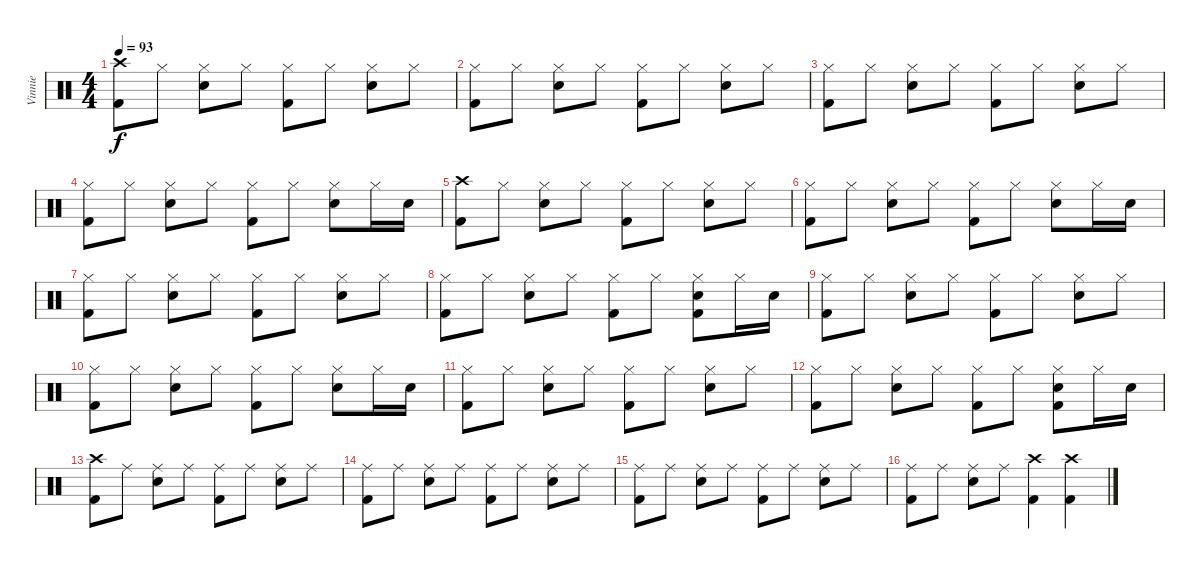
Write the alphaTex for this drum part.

\track ("Vinnie" "Vinnie") {instrument percussion}
\staff {score}
\articulation defaults
\ts (4 4)
\tempo 93
\clef neutral
\ks c
("Crash high (hit)" "Kick (hit) 2").8{dy f} "Hi-Hat (closed)".8 ("Hi-Hat (closed)" "Electric Snare (hit)").8 "Hi-Hat (closed)".8 ("Hi-Hat (closed)" "Kick (hit) 2").8 "Hi-Hat (closed)".8 ("Hi-Hat (closed)" "Electric Snare (hit)").8 "Hi-Hat (closed)".8 |
("Hi-Hat (closed)" "Kick (hit) 2").8 "Hi-Hat (closed)".8 ("Hi-Hat (closed)" "Electric Snare (hit)").8 "Hi-Hat (closed)".8 ("Hi-Hat (closed)" "Kick (hit) 2").8 "Hi-Hat (closed)".8 ("Hi-Hat (closed)" "Electric Snare (hit)").8 "Hi-Hat (closed)".8 |
("Hi-Hat (closed)" "Kick (hit) 2").8 "Hi-Hat (closed)".8 ("Hi-Hat (closed)" "Electric Snare (hit)").8 "Hi-Hat (closed)".8 ("Hi-Hat (closed)" "Kick (hit) 2").8 "Hi-Hat (closed)".8 ("Hi-Hat (closed)" "Electric Snare (hit)").8 "Hi-Hat (closed)".8 |
("Hi-Hat (closed)" "Kick (hit) 2").8 "Hi-Hat (closed)".8 ("Hi-Hat (closed)" "Electric Snare (hit)").8 "Hi-Hat (closed)".8 ("Hi-Hat (closed)" "Kick (hit) 2").8 "Hi-Hat (closed)".8 ("Hi-Hat (closed)" "Electric Snare (hit)").8 "Hi-Hat (closed)".16 "Electric Snare (hit)".16 |
("Crash high (hit)" "Kick (hit) 2").8 "Hi-Hat (closed)".8 ("Hi-Hat (closed)" "Electric Snare (hit)").8 "Hi-Hat (closed)".8 ("Hi-Hat (closed)" "Kick (hit) 2").8 "Hi-Hat (closed)".8 ("Hi-Hat (closed)" "Electric Snare (hit)").8 "Hi-Hat (closed)".8 |
("Hi-Hat (closed)" "Kick (hit) 2").8 "Hi-Hat (closed)".8 ("Hi-Hat (closed)" "Electric Snare (hit)").8 "Hi-Hat (closed)".8 ("Hi-Hat (closed)" "Kick (hit) 2").8 "Hi-Hat (closed)".8 ("Hi-Hat (closed)" "Electric Snare (hit)").8 "Hi-Hat (closed)".16 "Electric Snare (hit)".16 |
("Hi-Hat (closed)" "Kick (hit) 2").8 "Hi-Hat (closed)".8 ("Hi-Hat (closed)" "Electric Snare (hit)").8 "Hi-Hat (closed)".8 ("Hi-Hat (closed)" "Kick (hit) 2").8 "Hi-Hat (closed)".8 ("Hi-Hat (closed)" "Electric Snare (hit)").8 "Hi-Hat (closed)".8 |
("Hi-Hat (closed)" "Kick (hit) 2").8 "Hi-Hat (closed)".8 ("Hi-Hat (closed)" "Electric Snare (hit)").8 "Hi-Hat (closed)".8 ("Hi-Hat (closed)" "Kick (hit) 2").8 "Hi-Hat (closed)".8 ("Hi-Hat (closed)" "Electric Snare (hit)" "Kick (hit) 2").8 "Hi-Hat (closed)".16 "Electric Snare (hit)".16 |
("Hi-Hat (closed)" "Kick (hit) 2").8 "Hi-Hat (closed)".8 ("Hi-Hat (closed)" "Electric Snare (hit)").8 "Hi-Hat (closed)".8 ("Hi-Hat (closed)" "Kick (hit) 2").8 "Hi-Hat (closed)".8 ("Hi-Hat (closed)" "Electric Snare (hit)").8 "Hi-Hat (closed)".8 |
("Hi-Hat (closed)" "Kick (hit) 2").8 "Hi-Hat (closed)".8 ("Hi-Hat (closed)" "Electric Snare (hit)").8 "Hi-Hat (closed)".8 ("Hi-Hat (closed)" "Kick (hit) 2").8 "Hi-Hat (closed)".8 ("Hi-Hat (closed)" "Electric Snare (hit)").8 "Hi-Hat (closed)".16 "Electric Snare (hit)".16 |
("Hi-Hat (closed)" "Kick (hit) 2").8 "Hi-Hat (closed)".8 ("Hi-Hat (closed)" "Electric Snare (hit)").8 "Hi-Hat (closed)".8 ("Hi-Hat (closed)" "Kick (hit) 2").8 "Hi-Hat (closed)".8 ("Hi-Hat (closed)" "Electric Snare (hit)").8 "Hi-Hat (closed)".8 |
("Hi-Hat (closed)" "Kick (hit) 2").8 "Hi-Hat (closed)".8 ("Hi-Hat (closed)" "Electric Snare (hit)").8 "Hi-Hat (closed)".8 ("Hi-Hat (closed)" "Kick (hit) 2").8 "Hi-Hat (closed)".8 ("Hi-Hat (closed)" "Electric Snare (hit)" "Kick (hit) 2").8 "Hi-Hat (closed)".16 "Electric Snare (hit)".16 |
("Crash high (hit)" "Kick (hit) 2").8 "Ride (middle)".8 ("Ride (middle)" "Electric Snare (hit)").8 "Ride (middle)".8 ("Ride (middle)" "Kick (hit) 2").8 "Ride (middle)".8 ("Ride (middle)" "Electric Snare (hit)").8 "Ride (middle)".8 |
("Ride (middle)" "Kick (hit) 2").8 "Ride (middle)".8 ("Ride (middle)" "Electric Snare (hit)").8 "Ride (middle)".8 ("Ride (middle)" "Kick (hit) 2").8 "Ride (middle)".8 ("Ride (middle)" "Electric Snare (hit)").8 "Ride (middle)".8 |
("Ride (middle)" "Kick (hit) 2").8 "Ride (middle)".8 ("Ride (middle)" "Electric Snare (hit)").8 "Ride (middle)".8 ("Ride (middle)" "Kick (hit) 2").8 "Ride (middle)".8 ("Ride (middle)" "Electric Snare (hit)").8 "Ride (middle)".8 |
("Ride (middle)" "Kick (hit) 2").8 "Ride (middle)".8 ("Ride (middle)" "Electric Snare (hit)").8 "Ride (middle)".8 ("Crash high (hit)" "Kick (hit) 2").4 ("Crash high (hit)" "Kick (hit) 2").4
